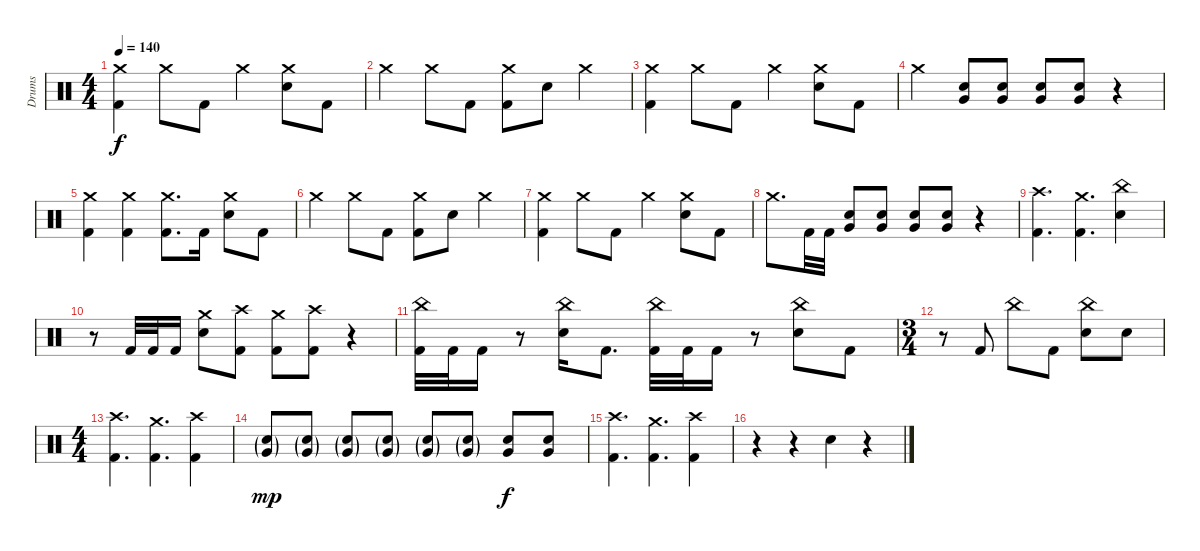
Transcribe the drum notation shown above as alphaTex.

\track ("Drums" "Drums") {instrument percussion}
\staff {score}
\articulation defaults
\ts (4 4)
\tempo 140
\clef neutral
\ks c
("Crash medium (hit)" "Kick (hit) 2").4{dy f} "Crash medium (hit)".8 "Kick (hit) 2".8 "Crash medium (hit)".4 ("Crash medium (hit)" "Electric Snare (hit)").8 "Kick (hit) 2".8 |
"Crash medium (hit)".4 "Crash medium (hit)".8 "Kick (hit) 2".8 ("Crash medium (hit)" "Kick (hit) 2").8 "Electric Snare (hit)".8 "Crash medium (hit)".4 |
("Crash medium (hit)" "Kick (hit) 2").4 "Crash medium (hit)".8 "Kick (hit) 2".8 "Crash medium (hit)".4 ("Crash medium (hit)" "Electric Snare (hit)").8 "Kick (hit) 2".8 |
"Crash medium (hit)".4 ("Very Low Tom (hit)" "Electric Snare (hit)").8 ("Very Low Tom (hit)" "Electric Snare (hit)").8 ("Very Low Tom (hit)" "Electric Snare (hit)").8 ("Very Low Tom (hit)" "Electric Snare (hit)").8 r.4 |
("Crash medium (hit)" "Kick (hit) 2").4 ("Crash medium (hit)" "Kick (hit) 2").4 ("Crash medium (hit)" "Kick (hit) 2").8{d} "Kick (hit) 2".16 ("Crash medium (hit)" "Electric Snare (hit)").8 "Kick (hit) 2".8 |
"Crash medium (hit)".4 "Crash medium (hit)".8 "Kick (hit) 2".8 ("Crash medium (hit)" "Kick (hit) 2").8 "Electric Snare (hit)".8 "Crash medium (hit)".4 |
("Crash medium (hit)" "Kick (hit) 2").4 "Crash medium (hit)".8 "Kick (hit) 2".8 "Crash medium (hit)".4 ("Crash medium (hit)" "Electric Snare (hit)").8 "Kick (hit) 2".8 |
"Crash medium (hit)".8{d} "Kick (hit) 2".32 "Kick (hit) 2".32 ("Very Low Tom (hit)" "Electric Snare (hit)").8 ("Very Low Tom (hit)" "Electric Snare (hit)").8 ("Very Low Tom (hit)" "Electric Snare (hit)").8 ("Very Low Tom (hit)" "Electric Snare (hit)").8 r.4 |
("Crash high (hit)" "Kick (hit) 2").4{d} ("Crash medium (hit)" "Kick (hit) 2").4{d} ("China (hit)" "Electric Snare (hit)").4 |
r.8 "Kick (hit) 2".32 "Kick (hit) 2".32 "Kick (hit) 2".16 ("Crash medium (hit)" "Electric Snare (hit)").8 ("Crash high (hit)" "Kick (hit) 2").8 ("Crash medium (hit)" "Kick (hit) 2").8 ("Crash high (hit)" "Kick (hit) 2").8 r.4 |
("China (hit)" "Kick (hit) 2").32 "Kick (hit) 2".32 "Kick (hit) 2".16 r.8 ("China (hit)" "Electric Snare (hit)").16 "Kick (hit) 2".8{d} ("China (hit)" "Kick (hit) 2").32 "Kick (hit) 2".32 "Kick (hit) 2".16 r.8 ("China (hit)" "Electric Snare (hit)").8 "Kick (hit) 2".8 |
\ts (3 4)
r.8 "Kick (hit) 2".8 "China (hit)".8 "Kick (hit) 2".8 ("China (hit)" "Electric Snare (hit)").8 "Electric Snare (hit)".8 |
\ts (4 4)
("Crash high (hit)" "Kick (hit) 2").4{d} ("Crash medium (hit)" "Kick (hit) 2").4{d} ("Crash high (hit)" "Kick (hit) 2").4 |
("Very Low Tom (hit)"{g} "Electric Snare (hit)"{g}).8{dy mp} ("Very Low Tom (hit)"{g} "Electric Snare (hit)"{g}).8 ("Very Low Tom (hit)"{g} "Electric Snare (hit)"{g}).8 ("Very Low Tom (hit)"{g} "Electric Snare (hit)"{g}).8 ("Very Low Tom (hit)"{g} "Electric Snare (hit)"{g}).8 ("Very Low Tom (hit)"{g} "Electric Snare (hit)"{g}).8 ("Very Low Tom (hit)" "Electric Snare (hit)").8{dy f} ("Very Low Tom (hit)" "Electric Snare (hit)").8 |
("Crash high (hit)" "Kick (hit) 2").4{d} ("Crash medium (hit)" "Kick (hit) 2").4{d} ("Crash high (hit)" "Kick (hit) 2").4 |
r.4 r.4 "Electric Snare (hit)".4 r.4
